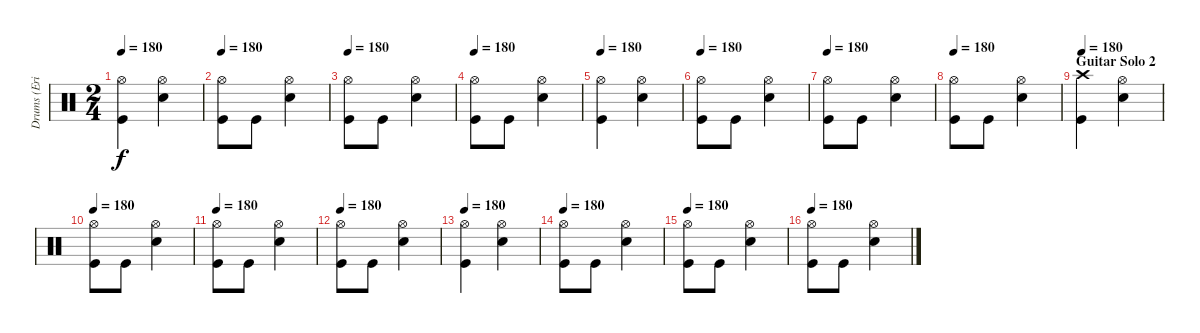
\track ("Drums (Eric Singer)" "Drums (Eri") {instrument percussion}
\staff {score}
\articulation defaults
\ts (2 4)
\tempo 180
\clef neutral
\ks c
("Hi-Hat (open)" "Kick (hit)").4{dy f} ("Hi-Hat (open)" "Electric Snare (hit)").4 |
\tempo 180
("Hi-Hat (open)" "Kick (hit)").8 "Kick (hit)".8 ("Hi-Hat (open)" "Electric Snare (hit)").4 |
\tempo 180
("Hi-Hat (open)" "Kick (hit)").8 "Kick (hit)".8 ("Hi-Hat (open)" "Electric Snare (hit)").4 |
\tempo 180
("Hi-Hat (open)" "Kick (hit)").8 "Kick (hit)".8 ("Hi-Hat (open)" "Electric Snare (hit)").4 |
\tempo 180
("Hi-Hat (open)" "Kick (hit)").4 ("Hi-Hat (open)" "Electric Snare (hit)").4 |
\tempo 180
("Hi-Hat (open)" "Kick (hit)").8 "Kick (hit)".8 ("Hi-Hat (open)" "Electric Snare (hit)").4 |
\tempo 180
("Hi-Hat (open)" "Kick (hit)").8 "Kick (hit)".8 ("Hi-Hat (open)" "Electric Snare (hit)").4 |
\tempo 180
("Hi-Hat (open)" "Kick (hit)").8 "Kick (hit)".8 ("Hi-Hat (open)" "Electric Snare (hit)").4 |
\section ("" "Guitar Solo 2")
\tempo 180
("Crash high (hit)" "Kick (hit)").4 ("Hi-Hat (open)" "Electric Snare (hit)").4 |
\tempo 180
("Hi-Hat (open)" "Kick (hit)").8 "Kick (hit)".8 ("Hi-Hat (open)" "Electric Snare (hit)").4 |
\tempo 180
("Hi-Hat (open)" "Kick (hit)").8 "Kick (hit)".8 ("Hi-Hat (open)" "Electric Snare (hit)").4 |
\tempo 180
("Hi-Hat (open)" "Kick (hit)").8 "Kick (hit)".8 ("Hi-Hat (open)" "Electric Snare (hit)").4 |
\tempo 180
("Hi-Hat (open)" "Kick (hit)").4 ("Hi-Hat (open)" "Electric Snare (hit)").4 |
\tempo 180
("Hi-Hat (open)" "Kick (hit)").8 "Kick (hit)".8 ("Hi-Hat (open)" "Electric Snare (hit)").4 |
\tempo 180
("Hi-Hat (open)" "Kick (hit)").8 "Kick (hit)".8 ("Hi-Hat (open)" "Electric Snare (hit)").4 |
\tempo 180
("Hi-Hat (open)" "Kick (hit)").8 "Kick (hit)".8 ("Hi-Hat (open)" "Electric Snare (hit)").4
